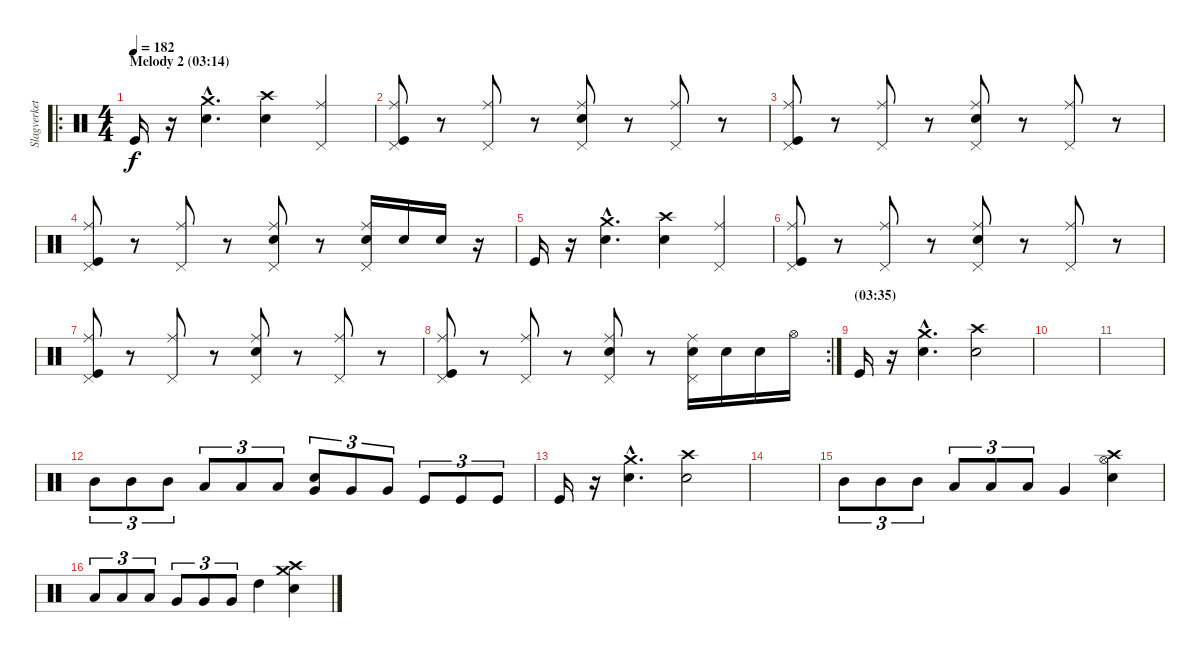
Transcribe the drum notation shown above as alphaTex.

\track ("Slagverket! =)" "Slagverket") {instrument percussion}
\staff {score}
\articulation defaults
\ro
\ts (4 4)
\section ("" "Melody 2 (03:14)")
\tempo 182
\clef neutral
\ks c "Kick (hit)".16{dy f}
r.16 ("Crash medium (hit)"{hac} "Snare (hit) 2"{hac}).4{d} ("Crash high (hit)" "Snare (hit) 2").4 ("Ride (middle)" "Pedal Hi-Hat (hit)").4 |
("Ride (middle)" "Pedal Hi-Hat (hit)" "Kick (hit)").8 r.8 ("Ride (middle)" "Pedal Hi-Hat (hit)").8 r.8 ("Ride (middle)" "Pedal Hi-Hat (hit)" "Snare (hit) 2").8 r.8 ("Ride (middle)" "Pedal Hi-Hat (hit)").8 r.8 |
("Ride (middle)" "Pedal Hi-Hat (hit)" "Kick (hit)").8 r.8 ("Ride (middle)" "Pedal Hi-Hat (hit)").8 r.8 ("Ride (middle)" "Pedal Hi-Hat (hit)" "Snare (hit) 2").8 r.8 ("Ride (middle)" "Pedal Hi-Hat (hit)").8 r.8 |
("Ride (middle)" "Pedal Hi-Hat (hit)" "Kick (hit)").8 r.8 ("Ride (middle)" "Pedal Hi-Hat (hit)").8 r.8 ("Ride (middle)" "Pedal Hi-Hat (hit)" "Snare (hit) 2").8 r.8 ("Ride (middle)" "Pedal Hi-Hat (hit)" "Snare (hit) 2").16 "Snare (hit) 2".16 "Snare (hit) 2".16 r.16 |
"Kick (hit)".16 r.16 ("Crash medium (hit)"{hac} "Snare (hit) 2"{hac}).4{d} ("Crash high (hit)" "Snare (hit) 2").4 ("Ride (middle)" "Pedal Hi-Hat (hit)").4 |
("Ride (middle)" "Pedal Hi-Hat (hit)" "Kick (hit)").8 r.8 ("Ride (middle)" "Pedal Hi-Hat (hit)").8 r.8 ("Ride (middle)" "Pedal Hi-Hat (hit)" "Snare (hit) 2").8 r.8 ("Ride (middle)" "Pedal Hi-Hat (hit)").8 r.8 |
("Ride (middle)" "Pedal Hi-Hat (hit)" "Kick (hit)").8 r.8 ("Ride (middle)" "Pedal Hi-Hat (hit)").8 r.8 ("Ride (middle)" "Pedal Hi-Hat (hit)" "Snare (hit) 2").8 r.8 ("Ride (middle)" "Pedal Hi-Hat (hit)").8 r.8 |
\rc 2
("Ride (middle)" "Pedal Hi-Hat (hit)" "Kick (hit)").8 r.8 ("Ride (middle)" "Pedal Hi-Hat (hit)").8 r.8 ("Ride (middle)" "Pedal Hi-Hat (hit)" "Snare (hit) 2").8 r.8 ("Ride (middle)" "Pedal Hi-Hat (hit)" "Snare (hit) 2").16 "Snare (hit) 2".16 "Snare (hit) 2".16 "Hi-Hat (open)".16 |
\section ("" "(03:35)")
"Kick (hit)".16 r.16 ("Crash medium (hit)"{hac} "Snare (hit) 2"{hac}).4{d} ("Crash high (hit)" "Snare (hit) 2").2 |
|
|
"Mid Tom (hit)".8{tu (3 2)} "Mid Tom (hit)".8{tu (3 2)} "Mid Tom (hit)".8{tu (3 2)} "Low Tom (hit)".8{tu (3 2)} "Low Tom (hit)".8{tu (3 2)} "Low Tom (hit)".8{tu (3 2)} ("Snare (hit) 2" "Very Low Tom (hit)").8{tu (3 2)} "Very Low Tom (hit)".8{tu (3 2)} "Very Low Tom (hit)".8{tu (3 2)} "Kick (hit)".8{tu (3 2)} "Kick (hit)".8{tu (3 2)} "Kick (hit)".8{tu (3 2)} |
"Kick (hit)".16 r.16 ("Crash medium (hit)"{hac} "Snare (hit) 2"{hac}).4{d} ("Crash high (hit)" "Snare (hit) 2").2 |
|
"Mid Tom (hit)".8{tu (3 2)} "Mid Tom (hit)".8{tu (3 2)} "Mid Tom (hit)".8{tu (3 2)} "Low Tom (hit)".8{tu (3 2)} "Low Tom (hit)".8{tu (3 2)} "Low Tom (hit)".8{tu (3 2)} "Very Low Tom (hit)".4 ("Crash high (hit)" "Hi-Hat (open)" "Snare (hit) 2").4 |
"Low Tom (hit)".8{tu (3 2)} "Low Tom (hit)".8{tu (3 2)} "Low Tom (hit)".8{tu (3 2)} "Very Low Tom (hit)".8{tu (3 2)} "Very Low Tom (hit)".8{tu (3 2)} "Very Low Tom (hit)".8{tu (3 2)} "High Tom (hit)".4 ("Crash medium (hit)" "Crash high (hit)" "Electric Snare (hit)").4
